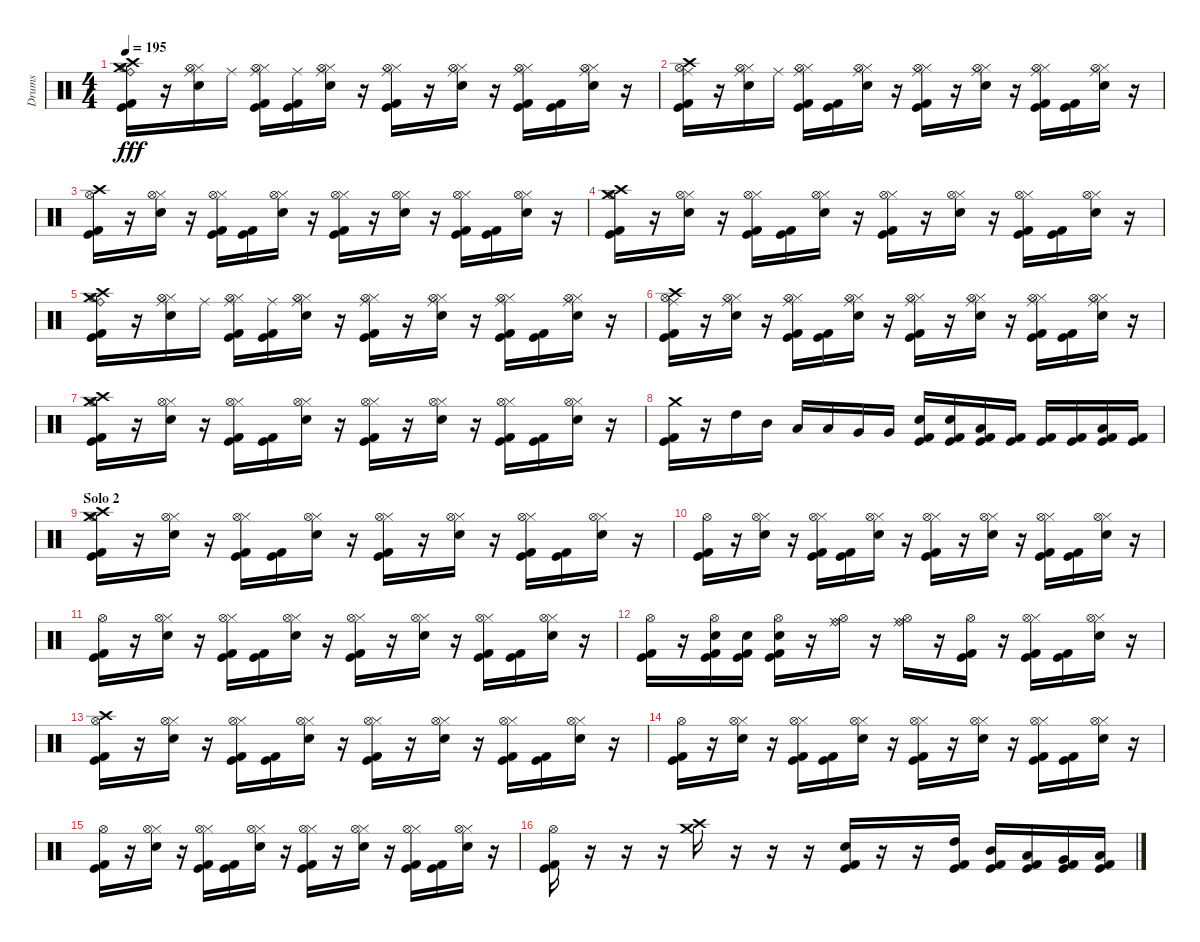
\track ("Drums" "Drums") {instrument percussion}
\staff {score}
\articulation defaults
\ts (4 4)
\tempo 195
\clef neutral
\ks c
("Kick (hit) 2" "Kick (hit)" "Crash high (hit)" "Ride (bell)" "Hi-Hat (open)" "Crash medium (hit)").16{dy fff} r.16 ("Snare (hit) 2" "Hi-Hat (closed)" "Ride (middle)" "Hi-Hat (open)").16 "Ride (middle)".16 ("Kick (hit) 2" "Kick (hit)" "Hi-Hat (closed)" "Ride (middle)" "Hi-Hat (open)").16 ("Kick (hit) 2" "Kick (hit)" "Ride (middle)").16 ("Snare (hit) 2" "Hi-Hat (closed)" "Ride (middle)" "Hi-Hat (open)").16 r.16 ("Kick (hit) 2" "Kick (hit)" "Hi-Hat (closed)" "Ride (middle)" "Hi-Hat (open)").16 r.16 ("Snare (hit) 2" "Hi-Hat (closed)" "Ride (middle)" "Hi-Hat (open)").16 r.16 ("Kick (hit) 2" "Kick (hit)" "Hi-Hat (closed)" "Ride (middle)" "Hi-Hat (open)").16 ("Kick (hit) 2" "Kick (hit)").16 ("Snare (hit) 2" "Hi-Hat (closed)" "Ride (middle)" "Hi-Hat (open)").16 r.16 |
("Kick (hit) 2" "Kick (hit)" "Crash high (hit)" "Ride (middle)" "Hi-Hat (open)").16 r.16 ("Snare (hit) 2" "Hi-Hat (closed)" "Ride (middle)" "Hi-Hat (open)").16 "Ride (middle)".16 ("Kick (hit) 2" "Kick (hit)" "Hi-Hat (closed)" "Ride (middle)" "Hi-Hat (open)").16 ("Kick (hit) 2" "Kick (hit)").16 ("Snare (hit) 2" "Hi-Hat (closed)" "Ride (middle)" "Hi-Hat (open)").16 r.16 ("Kick (hit) 2" "Kick (hit)" "Hi-Hat (closed)" "Ride (middle)" "Hi-Hat (open)").16 r.16 ("Snare (hit) 2" "Hi-Hat (closed)" "Ride (middle)" "Hi-Hat (open)").16 r.16 ("Kick (hit) 2" "Kick (hit)" "Hi-Hat (closed)" "Ride (middle)" "Hi-Hat (open)").16 ("Kick (hit) 2" "Kick (hit)").16 ("Snare (hit) 2" "Hi-Hat (closed)" "Ride (middle)" "Hi-Hat (open)").16 r.16 |
("Kick (hit) 2" "Kick (hit)" "Crash high (hit)" "Hi-Hat (open)").16 r.16 ("Snare (hit) 2" "Hi-Hat (closed)" "Hi-Hat (open)").16 r.16 ("Kick (hit) 2" "Kick (hit)" "Hi-Hat (closed)" "Hi-Hat (open)").16 ("Kick (hit) 2" "Kick (hit)").16 ("Snare (hit) 2" "Hi-Hat (closed)" "Hi-Hat (open)").16 r.16 ("Kick (hit) 2" "Kick (hit)" "Hi-Hat (closed)" "Hi-Hat (open)").16 r.16 ("Snare (hit) 2" "Hi-Hat (closed)" "Hi-Hat (open)").16 r.16 ("Kick (hit) 2" "Kick (hit)" "Hi-Hat (closed)" "Hi-Hat (open)").16 ("Kick (hit) 2" "Kick (hit)").16 ("Snare (hit) 2" "Hi-Hat (closed)" "Hi-Hat (open)").16 r.16 |
("Kick (hit) 2" "Kick (hit)" "Crash high (hit)" "Hi-Hat (open)" "Crash medium (hit)").16 r.16 ("Snare (hit) 2" "Hi-Hat (closed)" "Hi-Hat (open)").16 r.16 ("Kick (hit) 2" "Kick (hit)" "Hi-Hat (closed)" "Hi-Hat (open)").16 ("Kick (hit) 2" "Kick (hit)").16 ("Snare (hit) 2" "Hi-Hat (closed)" "Hi-Hat (open)").16 r.16 ("Kick (hit) 2" "Kick (hit)" "Hi-Hat (closed)" "Hi-Hat (open)").16 r.16 ("Snare (hit) 2" "Hi-Hat (closed)" "Hi-Hat (open)").16 r.16 ("Kick (hit) 2" "Kick (hit)" "Hi-Hat (closed)" "Hi-Hat (open)").16 ("Kick (hit) 2" "Kick (hit)").16 ("Snare (hit) 2" "Hi-Hat (closed)" "Hi-Hat (open)").16 r.16 |
("Kick (hit) 2" "Kick (hit)" "Crash high (hit)" "Ride (bell)" "Hi-Hat (open)" "Crash medium (hit)").16 r.16 ("Snare (hit) 2" "Hi-Hat (closed)" "Ride (middle)" "Hi-Hat (open)").16 "Ride (middle)".16 ("Kick (hit) 2" "Kick (hit)" "Hi-Hat (closed)" "Ride (middle)" "Hi-Hat (open)").16 ("Kick (hit) 2" "Kick (hit)" "Ride (middle)").16 ("Snare (hit) 2" "Hi-Hat (closed)" "Ride (middle)" "Hi-Hat (open)").16 r.16 ("Kick (hit) 2" "Kick (hit)" "Hi-Hat (closed)" "Ride (middle)" "Hi-Hat (open)").16 r.16 ("Snare (hit) 2" "Hi-Hat (closed)" "Ride (middle)" "Hi-Hat (open)").16 r.16 ("Kick (hit) 2" "Kick (hit)" "Hi-Hat (closed)" "Ride (middle)" "Hi-Hat (open)").16 ("Kick (hit) 2" "Kick (hit)").16 ("Snare (hit) 2" "Hi-Hat (closed)" "Ride (middle)" "Hi-Hat (open)").16 r.16 |
("Kick (hit) 2" "Kick (hit)" "Crash high (hit)" "Ride (middle)" "Hi-Hat (open)").16 r.16 ("Snare (hit) 2" "Hi-Hat (closed)" "Ride (middle)" "Hi-Hat (open)").16 r.16 ("Kick (hit) 2" "Kick (hit)" "Hi-Hat (closed)" "Ride (middle)" "Hi-Hat (open)").16 ("Kick (hit) 2" "Kick (hit)").16 ("Snare (hit) 2" "Hi-Hat (closed)" "Ride (middle)" "Hi-Hat (open)").16 r.16 ("Kick (hit) 2" "Kick (hit)" "Hi-Hat (closed)" "Ride (middle)" "Hi-Hat (open)").16 r.16 ("Snare (hit) 2" "Hi-Hat (closed)" "Ride (middle)" "Hi-Hat (open)").16 r.16 ("Kick (hit) 2" "Kick (hit)" "Hi-Hat (closed)" "Ride (middle)" "Hi-Hat (open)").16 ("Kick (hit) 2" "Kick (hit)").16 ("Snare (hit) 2" "Hi-Hat (closed)" "Ride (middle)" "Hi-Hat (open)").16 r.16 |
("Kick (hit) 2" "Kick (hit)" "Crash high (hit)" "Hi-Hat (open)" "Crash medium (hit)").16 r.16 ("Snare (hit) 2" "Hi-Hat (closed)" "Hi-Hat (open)").16 r.16 ("Kick (hit) 2" "Kick (hit)" "Hi-Hat (closed)" "Hi-Hat (open)").16 ("Kick (hit) 2" "Kick (hit)").16 ("Snare (hit) 2" "Hi-Hat (closed)" "Hi-Hat (open)").16 r.16 ("Kick (hit) 2" "Kick (hit)" "Hi-Hat (closed)" "Hi-Hat (open)").16 r.16 ("Snare (hit) 2" "Hi-Hat (closed)" "Hi-Hat (open)").16 r.16 ("Kick (hit) 2" "Kick (hit)" "Hi-Hat (closed)" "Hi-Hat (open)").16 ("Kick (hit) 2" "Kick (hit)").16 ("Snare (hit) 2" "Hi-Hat (closed)" "Hi-Hat (open)").16 r.16 |
("Kick (hit) 2" "Kick (hit)" "Crash medium (hit)").16 r.16 "High Tom (hit)".16 "Mid Tom (hit)".16 "Low Tom (hit)".16 "Low Tom (hit)".16 "Very Low Tom (hit)".16 "Very Low Tom (hit)".16 ("Kick (hit) 2" "Kick (hit)" "Snare (hit) 2").16 ("Kick (hit) 2" "Kick (hit)" "Snare (hit) 2").16 ("Kick (hit) 2" "Kick (hit)" "Low Tom (hit)").16 ("Kick (hit) 2" "Kick (hit)").16 ("Kick (hit) 2" "Kick (hit)").16 ("Kick (hit) 2" "Kick (hit)").16 ("Kick (hit) 2" "Kick (hit)" "Low Floor Tom (hit)").16 ("Kick (hit) 2" "Kick (hit)").16 |
\section ("" "Solo 2")
("Kick (hit) 2" "Kick (hit)" "Crash high (hit)" "Hi-Hat (open)" "Crash medium (hit)").16 r.16 ("Snare (hit) 2" "Hi-Hat (closed)" "Hi-Hat (open)").16 r.16 ("Kick (hit) 2" "Kick (hit)" "Hi-Hat (closed)" "Hi-Hat (open)").16 ("Kick (hit) 2" "Kick (hit)").16 ("Snare (hit) 2" "Hi-Hat (closed)" "Hi-Hat (open)").16 r.16 ("Kick (hit) 2" "Kick (hit)" "Hi-Hat (closed)" "Hi-Hat (open)").16 r.16 ("Snare (hit) 2" "Hi-Hat (closed)" "Hi-Hat (open)").16 r.16 ("Kick (hit) 2" "Kick (hit)" "Hi-Hat (closed)" "Hi-Hat (open)").16 ("Kick (hit) 2" "Kick (hit)").16 ("Snare (hit) 2" "Hi-Hat (closed)" "Hi-Hat (open)").16 r.16 |
("Kick (hit) 2" "Kick (hit)" "Hi-Hat (open)").16 r.16 ("Snare (hit) 2" "Hi-Hat (closed)" "Hi-Hat (open)").16 r.16 ("Kick (hit) 2" "Kick (hit)" "Hi-Hat (closed)" "Hi-Hat (open)").16 ("Kick (hit) 2" "Kick (hit)").16 ("Snare (hit) 2" "Hi-Hat (closed)" "Hi-Hat (open)").16 r.16 ("Kick (hit) 2" "Kick (hit)" "Hi-Hat (closed)" "Hi-Hat (open)").16 r.16 ("Snare (hit) 2" "Hi-Hat (closed)" "Hi-Hat (open)").16 r.16 ("Kick (hit) 2" "Kick (hit)" "Hi-Hat (closed)" "Hi-Hat (open)").16 ("Kick (hit) 2" "Kick (hit)").16 ("Snare (hit) 2" "Hi-Hat (closed)" "Hi-Hat (open)").16 r.16 |
("Kick (hit) 2" "Kick (hit)" "Hi-Hat (open)").16 r.16 ("Snare (hit) 2" "Hi-Hat (closed)" "Hi-Hat (open)").16 r.16 ("Kick (hit) 2" "Kick (hit)" "Hi-Hat (closed)" "Hi-Hat (open)").16 ("Kick (hit) 2" "Kick (hit)").16 ("Snare (hit) 2" "Hi-Hat (closed)" "Hi-Hat (open)").16 r.16 ("Kick (hit) 2" "Kick (hit)" "Hi-Hat (closed)" "Hi-Hat (open)").16 r.16 ("Snare (hit) 2" "Hi-Hat (closed)" "Hi-Hat (open)").16 r.16 ("Kick (hit) 2" "Kick (hit)" "Hi-Hat (closed)" "Hi-Hat (open)").16 ("Kick (hit) 2" "Kick (hit)").16 ("Snare (hit) 2" "Hi-Hat (closed)" "Hi-Hat (open)").16 r.16 |
("Kick (hit) 2" "Kick (hit)" "Hi-Hat (open)").16 r.16 ("Kick (hit) 2" "Kick (hit)" "Electric Snare (hit)" "Hi-Hat (open)").16 ("Kick (hit) 2" "Kick (hit)" "Snare (hit) 2").16 ("Kick (hit) 2" "Kick (hit)" "Electric Snare (hit)" "Hi-Hat (open)").16 r.16 ("Ride (middle)" "Hi-Hat (open)" "Ride (bell)").16 r.16 ("Ride (middle)" "Hi-Hat (open)" "Ride (bell)").16 r.16 ("Kick (hit) 2" "Kick (hit)" "Hi-Hat (open)").16 r.16 ("Kick (hit) 2" "Kick (hit)" "Hi-Hat (closed)" "Hi-Hat (open)").16 ("Kick (hit) 2" "Kick (hit)").16 ("Snare (hit) 2" "Hi-Hat (closed)" "Hi-Hat (open)").16 r.16 |
("Kick (hit) 2" "Kick (hit)" "Crash high (hit)" "Hi-Hat (open)").16 r.16 ("Snare (hit) 2" "Hi-Hat (closed)" "Hi-Hat (open)").16 r.16 ("Kick (hit) 2" "Kick (hit)" "Hi-Hat (closed)" "Hi-Hat (open)").16 ("Kick (hit) 2" "Kick (hit)").16 ("Snare (hit) 2" "Hi-Hat (closed)" "Hi-Hat (open)").16 r.16 ("Kick (hit) 2" "Kick (hit)" "Hi-Hat (closed)" "Hi-Hat (open)").16 r.16 ("Snare (hit) 2" "Hi-Hat (closed)" "Hi-Hat (open)").16 r.16 ("Kick (hit) 2" "Kick (hit)" "Hi-Hat (closed)" "Hi-Hat (open)").16 ("Kick (hit) 2" "Kick (hit)").16 ("Snare (hit) 2" "Hi-Hat (closed)" "Hi-Hat (open)").16 r.16 |
("Kick (hit) 2" "Kick (hit)" "Hi-Hat (open)").16 r.16 ("Snare (hit) 2" "Hi-Hat (closed)" "Hi-Hat (open)").16 r.16 ("Kick (hit) 2" "Kick (hit)" "Hi-Hat (closed)" "Hi-Hat (open)").16 ("Kick (hit) 2" "Kick (hit)").16 ("Snare (hit) 2" "Hi-Hat (closed)" "Hi-Hat (open)").16 r.16 ("Kick (hit) 2" "Kick (hit)" "Hi-Hat (closed)" "Hi-Hat (open)").16 r.16 ("Snare (hit) 2" "Hi-Hat (closed)" "Hi-Hat (open)").16 r.16 ("Kick (hit) 2" "Kick (hit)" "Hi-Hat (closed)" "Hi-Hat (open)").16 ("Kick (hit) 2" "Kick (hit)").16 ("Snare (hit) 2" "Hi-Hat (closed)" "Hi-Hat (open)").16 r.16 |
("Kick (hit) 2" "Kick (hit)" "Hi-Hat (open)").16 r.16 ("Snare (hit) 2" "Hi-Hat (closed)" "Hi-Hat (open)").16 r.16 ("Kick (hit) 2" "Kick (hit)" "Hi-Hat (closed)" "Hi-Hat (open)").16 ("Kick (hit) 2" "Kick (hit)").16 ("Snare (hit) 2" "Hi-Hat (closed)" "Hi-Hat (open)").16 r.16 ("Kick (hit) 2" "Kick (hit)" "Hi-Hat (closed)" "Hi-Hat (open)").16 r.16 ("Snare (hit) 2" "Hi-Hat (closed)" "Hi-Hat (open)").16 r.16 ("Kick (hit) 2" "Kick (hit)" "Hi-Hat (closed)" "Hi-Hat (open)").16 ("Kick (hit) 2" "Kick (hit)").16 ("Snare (hit) 2" "Hi-Hat (closed)" "Hi-Hat (open)").16 r.16 |
("Kick (hit) 2" "Kick (hit)" "Hi-Hat (open)").16 r.16 r.16 r.16 ("Crash high (hit)" "Crash medium (hit)").16 r.16 r.16 r.16 ("Kick (hit) 2" "Kick (hit)" "Snare (hit) 2").16 r.16 r.16 ("Kick (hit) 2" "Kick (hit)" "High Tom (hit)").16 ("Kick (hit) 2" "Kick (hit)" "Mid Tom (hit)").16 ("Kick (hit) 2" "Kick (hit)" "Low Tom (hit)").16 ("Kick (hit) 2" "Kick (hit)" "Very Low Tom (hit)").16 ("Kick (hit) 2" "Kick (hit)" "Low Floor Tom (hit)").16
